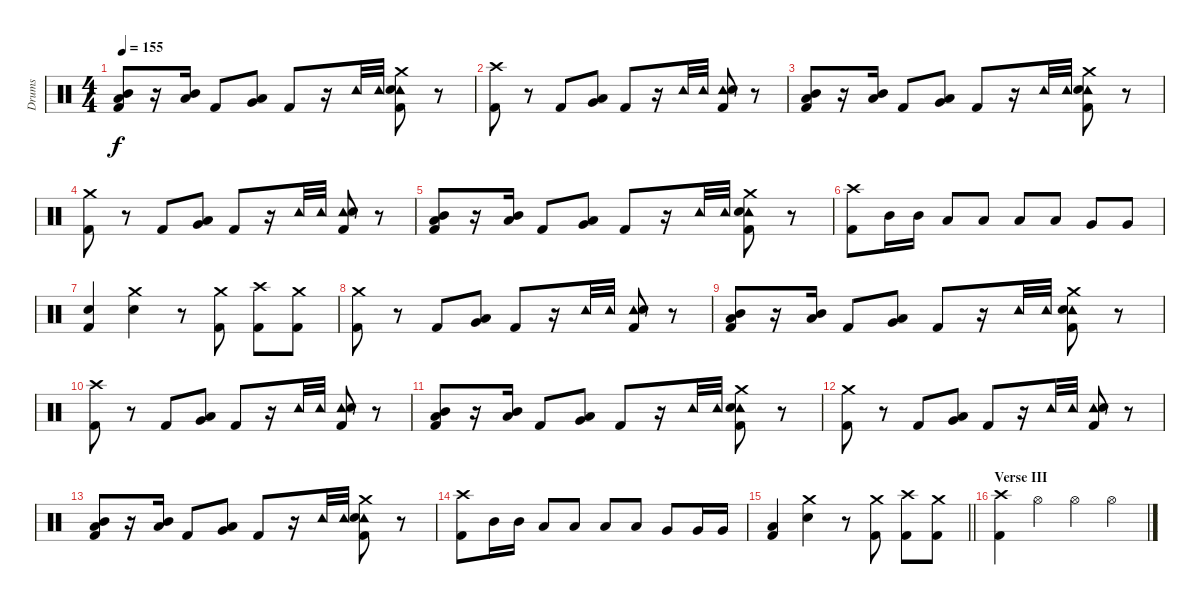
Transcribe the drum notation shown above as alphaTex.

\track ("Drums" "Drums") {instrument percussion}
\staff {score}
\articulation defaults
\ts (4 4)
\tempo 155
\clef neutral
\ks c
("Mid Tom (hit)" "Low Tom (hit)" "Kick (hit) 2").8{dy f} r.16 ("Mid Tom (hit)" "Low Tom (hit)").16 "Kick (hit) 2".8 ("Low Tom (hit)" "Very Low Tom (hit)").8 "Kick (hit) 2".8 r.16 "Tambourine (hit)".32 "Tambourine (hit)".32 ("Tambourine (hit)" "Electric Snare (hit)" "Crash medium (hit)" "Kick (hit) 2").8 r.8 |
("Crash high (hit)" "Kick (hit) 2").8 r.8 "Kick (hit) 2".8 ("Low Tom (hit)" "Very Low Tom (hit)").8 "Kick (hit) 2".8 r.16 "Tambourine (hit)".32 "Tambourine (hit)".32 ("Tambourine (hit)" "Electric Snare (hit)" "Kick (hit) 2").8 r.8 |
("Mid Tom (hit)" "Low Tom (hit)" "Kick (hit) 2").8 r.16 ("Mid Tom (hit)" "Low Tom (hit)").16 "Kick (hit) 2".8 ("Low Tom (hit)" "Very Low Tom (hit)").8 "Kick (hit) 2".8 r.16 "Tambourine (hit)".32 "Tambourine (hit)".32 ("Tambourine (hit)" "Electric Snare (hit)" "Crash medium (hit)" "Kick (hit) 2").8 r.8 |
("Crash medium (hit)" "Kick (hit) 2").8 r.8 "Kick (hit) 2".8 ("Low Tom (hit)" "Very Low Tom (hit)").8 "Kick (hit) 2".8 r.16 "Tambourine (hit)".32 "Tambourine (hit)".32 ("Tambourine (hit)" "Electric Snare (hit)" "Kick (hit) 2").8 r.8 |
("Mid Tom (hit)" "Low Tom (hit)" "Kick (hit) 2").8 r.16 ("Mid Tom (hit)" "Low Tom (hit)").16 "Kick (hit) 2".8 ("Low Tom (hit)" "Very Low Tom (hit)").8 "Kick (hit) 2".8 r.16 "Tambourine (hit)".32 "Tambourine (hit)".32 ("Tambourine (hit)" "Electric Snare (hit)" "Crash medium (hit)" "Kick (hit) 2").8 r.8 |
("Crash high (hit)" "Kick (hit) 2").8 "Mid Tom (hit)".16 "Mid Tom (hit)".16 "Low Tom (hit)".8 "Low Tom (hit)".8 "Low Tom (hit)".8 "Low Tom (hit)".8 "Very Low Tom (hit)".8 "Very Low Tom (hit)".8 |
("Electric Snare (hit)" "Kick (hit) 2").4 ("Crash medium (hit)" "Electric Snare (hit)").4 r.8 ("Crash medium (hit)" "Kick (hit) 2").8 ("Crash high (hit)" "Kick (hit) 2").8 ("Crash medium (hit)" "Kick (hit) 2").8 |
("Crash medium (hit)" "Kick (hit) 2").8 r.8 "Kick (hit) 2".8 ("Low Tom (hit)" "Very Low Tom (hit)").8 "Kick (hit) 2".8 r.16 "Tambourine (hit)".32 "Tambourine (hit)".32 ("Tambourine (hit)" "Electric Snare (hit)" "Kick (hit) 2").8 r.8 |
("Mid Tom (hit)" "Low Tom (hit)" "Kick (hit) 2").8 r.16 ("Mid Tom (hit)" "Low Tom (hit)").16 "Kick (hit) 2".8 ("Low Tom (hit)" "Very Low Tom (hit)").8 "Kick (hit) 2".8 r.16 "Tambourine (hit)".32 "Tambourine (hit)".32 ("Tambourine (hit)" "Electric Snare (hit)" "Crash medium (hit)" "Kick (hit) 2").8 r.8 |
("Crash high (hit)" "Kick (hit) 2").8 r.8 "Kick (hit) 2".8 ("Low Tom (hit)" "Very Low Tom (hit)").8 "Kick (hit) 2".8 r.16 "Tambourine (hit)".32 "Tambourine (hit)".32 ("Tambourine (hit)" "Electric Snare (hit)" "Kick (hit) 2").8 r.8 |
("Mid Tom (hit)" "Low Tom (hit)" "Kick (hit) 2").8 r.16 ("Mid Tom (hit)" "Low Tom (hit)").16 "Kick (hit) 2".8 ("Low Tom (hit)" "Very Low Tom (hit)").8 "Kick (hit) 2".8 r.16 "Tambourine (hit)".32 "Tambourine (hit)".32 ("Tambourine (hit)" "Electric Snare (hit)" "Crash medium (hit)" "Kick (hit) 2").8 r.8 |
("Crash medium (hit)" "Kick (hit) 2").8 r.8 "Kick (hit) 2".8 ("Low Tom (hit)" "Very Low Tom (hit)").8 "Kick (hit) 2".8 r.16 "Tambourine (hit)".32 "Tambourine (hit)".32 ("Tambourine (hit)" "Electric Snare (hit)" "Kick (hit) 2").8 r.8 |
("Mid Tom (hit)" "Low Tom (hit)" "Kick (hit) 2").8 r.16 ("Mid Tom (hit)" "Low Tom (hit)").16 "Kick (hit) 2".8 ("Low Tom (hit)" "Very Low Tom (hit)").8 "Kick (hit) 2".8 r.16 "Tambourine (hit)".32 "Tambourine (hit)".32 ("Tambourine (hit)" "Electric Snare (hit)" "Crash medium (hit)" "Kick (hit) 2").8 r.8 |
("Crash high (hit)" "Kick (hit) 2").8 "Mid Tom (hit)".16 "Mid Tom (hit)".16 "Low Tom (hit)".8 "Low Tom (hit)".8 "Low Tom (hit)".8 "Low Tom (hit)".8 "Very Low Tom (hit)".8 "Very Low Tom (hit)".16 "Very Low Tom (hit)".16 |
\barLineRight lightlight
("Low Floor Tom (hit)" "Kick (hit) 2").4 ("Crash medium (hit)" "Electric Snare (hit)").4 r.8 ("Crash medium (hit)" "Kick (hit) 2").8 ("Crash high (hit)" "Kick (hit) 2").8 ("Crash medium (hit)" "Kick (hit) 2").8 |
\section ("" "Verse III")
("Crash high (hit)" "Kick (hit) 2").4 "Hi-Hat (open)".4 "Hi-Hat (open)".4 "Hi-Hat (open)".4
